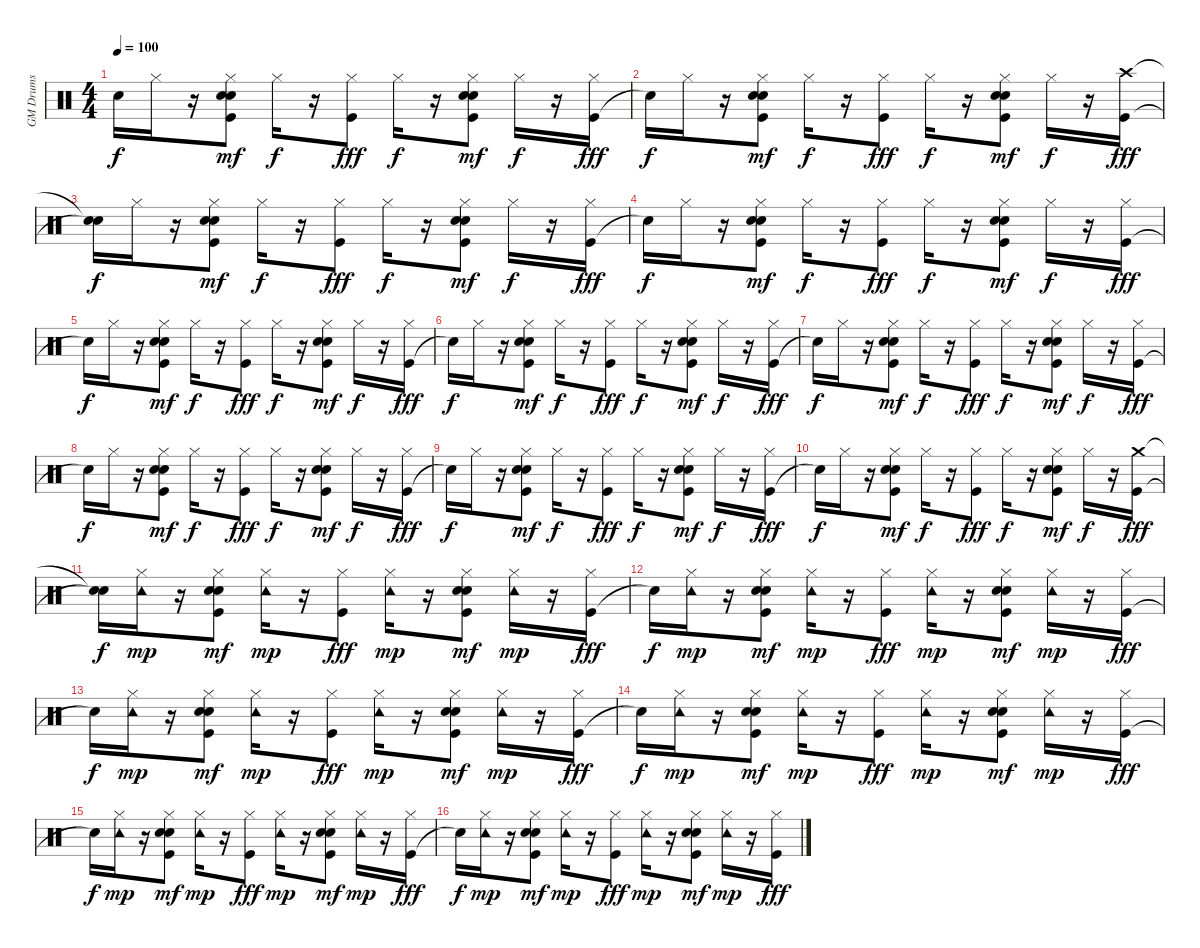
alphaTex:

\track ("GM Drums" "GM Drums") {instrument percussion}
\staff {score}
\articulation defaults
\ts (4 4)
\tempo 100
\clef neutral
\ks c "Snare (hit)"{t}.16{dy f} "Hi-Hat (closed)".16
r.16 ("Kick (hit)" "Snare (hit) 2" "Hand Clap (hit)" "Hi-Hat (closed)").8{dy mf} "Hi-Hat (closed)".16{dy f} r.16 ("Kick (hit)" "Hi-Hat (closed)").8{dy fff} "Hi-Hat (closed)".16{dy f} r.16 ("Kick (hit)" "Snare (hit) 2" "Hand Clap (hit)" "Hi-Hat (closed)").8{dy mf} "Hi-Hat (closed)".16{dy f} r.16 ("Kick (hit)" "Hi-Hat (closed)").16{dy fff} |
"Snare (hit)"{t}.16{dy f} "Hi-Hat (closed)".16 r.16 ("Kick (hit)" "Snare (hit) 2" "Hand Clap (hit)" "Hi-Hat (closed)").8{dy mf} "Hi-Hat (closed)".16{dy f} r.16 ("Kick (hit)" "Hi-Hat (closed)").8{dy fff} "Hi-Hat (closed)".16{dy f} r.16 ("Kick (hit)" "Snare (hit) 2" "Hand Clap (hit)" "Hi-Hat (closed)").8{dy mf} "Hi-Hat (closed)".16{dy f} r.16 ("Kick (hit)" "Crash high (hit)").16{dy fff} |
("Snare (hit)"{t} "Snare (hit)"{t}).16{dy f} "Hi-Hat (closed)".16 r.16 ("Kick (hit)" "Snare (hit) 2" "Hand Clap (hit)" "Hi-Hat (closed)").8{dy mf} "Hi-Hat (closed)".16{dy f} r.16 ("Kick (hit)" "Hi-Hat (closed)").8{dy fff} "Hi-Hat (closed)".16{dy f} r.16 ("Kick (hit)" "Snare (hit) 2" "Hand Clap (hit)" "Hi-Hat (closed)").8{dy mf} "Hi-Hat (closed)".16{dy f} r.16 ("Kick (hit)" "Hi-Hat (closed)").16{dy fff} |
"Snare (hit)"{t}.16{dy f} "Hi-Hat (closed)".16 r.16 ("Kick (hit)" "Snare (hit) 2" "Hand Clap (hit)" "Hi-Hat (closed)").8{dy mf} "Hi-Hat (closed)".16{dy f} r.16 ("Kick (hit)" "Hi-Hat (closed)").8{dy fff} "Hi-Hat (closed)".16{dy f} r.16 ("Kick (hit)" "Snare (hit) 2" "Hand Clap (hit)" "Hi-Hat (closed)").8{dy mf} "Hi-Hat (closed)".16{dy f} r.16 ("Kick (hit)" "Hi-Hat (closed)").16{dy fff} |
"Snare (hit)"{t}.16{dy f} "Hi-Hat (closed)".16 r.16 ("Kick (hit)" "Snare (hit) 2" "Hand Clap (hit)" "Hi-Hat (closed)").8{dy mf} "Hi-Hat (closed)".16{dy f} r.16 ("Kick (hit)" "Hi-Hat (closed)").8{dy fff} "Hi-Hat (closed)".16{dy f} r.16 ("Kick (hit)" "Snare (hit) 2" "Hand Clap (hit)" "Hi-Hat (closed)").8{dy mf} "Hi-Hat (closed)".16{dy f} r.16 ("Kick (hit)" "Hi-Hat (closed)").16{dy fff} |
"Snare (hit)"{t}.16{dy f} "Hi-Hat (closed)".16 r.16 ("Kick (hit)" "Snare (hit) 2" "Hand Clap (hit)" "Hi-Hat (closed)").8{dy mf} "Hi-Hat (closed)".16{dy f} r.16 ("Kick (hit)" "Hi-Hat (closed)").8{dy fff} "Hi-Hat (closed)".16{dy f} r.16 ("Kick (hit)" "Snare (hit) 2" "Hand Clap (hit)" "Hi-Hat (closed)").8{dy mf} "Hi-Hat (closed)".16{dy f} r.16 ("Kick (hit)" "Hi-Hat (closed)").16{dy fff} |
"Snare (hit)"{t}.16{dy f} "Hi-Hat (closed)".16 r.16 ("Kick (hit)" "Snare (hit) 2" "Hand Clap (hit)" "Hi-Hat (closed)").8{dy mf} "Hi-Hat (closed)".16{dy f} r.16 ("Kick (hit)" "Hi-Hat (closed)").8{dy fff} "Hi-Hat (closed)".16{dy f} r.16 ("Kick (hit)" "Snare (hit) 2" "Hand Clap (hit)" "Hi-Hat (closed)").8{dy mf} "Hi-Hat (closed)".16{dy f} r.16 ("Kick (hit)" "Hi-Hat (closed)").16{dy fff} |
"Snare (hit)"{t}.16{dy f} "Hi-Hat (closed)".16 r.16 ("Kick (hit)" "Snare (hit) 2" "Hand Clap (hit)" "Hi-Hat (closed)").8{dy mf} "Hi-Hat (closed)".16{dy f} r.16 ("Kick (hit)" "Hi-Hat (closed)").8{dy fff} "Hi-Hat (closed)".16{dy f} r.16 ("Kick (hit)" "Snare (hit) 2" "Hand Clap (hit)" "Hi-Hat (closed)").8{dy mf} "Hi-Hat (closed)".16{dy f} r.16 ("Kick (hit)" "Hi-Hat (closed)").16{dy fff} |
"Snare (hit)"{t}.16{dy f} "Hi-Hat (closed)".16 r.16 ("Kick (hit)" "Snare (hit) 2" "Hand Clap (hit)" "Hi-Hat (closed)").8{dy mf} "Hi-Hat (closed)".16{dy f} r.16 ("Kick (hit)" "Hi-Hat (closed)").8{dy fff} "Hi-Hat (closed)".16{dy f} r.16 ("Kick (hit)" "Snare (hit) 2" "Hand Clap (hit)" "Hi-Hat (closed)").8{dy mf} "Hi-Hat (closed)".16{dy f} r.16 ("Kick (hit)" "Hi-Hat (closed)").16{dy fff} |
"Snare (hit)"{t}.16{dy f} "Hi-Hat (closed)".16 r.16 ("Kick (hit)" "Snare (hit) 2" "Hand Clap (hit)" "Hi-Hat (closed)").8{dy mf} "Hi-Hat (closed)".16{dy f} r.16 ("Kick (hit)" "Hi-Hat (closed)").8{dy fff} "Hi-Hat (closed)".16{dy f} r.16 ("Kick (hit)" "Snare (hit) 2" "Hand Clap (hit)" "Hi-Hat (closed)").8{dy mf} "Hi-Hat (closed)".16{dy f} r.16 ("Kick (hit)" "Crash medium (hit)").16{dy fff} |
("Snare (hit)"{t} "Snare (hit)"{t}).16{dy f} ("Hi-Hat (closed)" "Tambourine (hit)").16{dy mp} r.16 ("Kick (hit)" "Snare (hit) 2" "Hand Clap (hit)" "Hi-Hat (closed)").8{dy mf} ("Hi-Hat (closed)" "Tambourine (hit)").16{dy mp} r.16 ("Kick (hit)" "Hi-Hat (closed)").8{dy fff} ("Hi-Hat (closed)" "Tambourine (hit)").16{dy mp} r.16 ("Kick (hit)" "Snare (hit) 2" "Hand Clap (hit)" "Hi-Hat (closed)").8{dy mf} ("Hi-Hat (closed)" "Tambourine (hit)").16{dy mp} r.16 ("Kick (hit)" "Hi-Hat (closed)").16{dy fff} |
"Snare (hit)"{t}.16{dy f} ("Hi-Hat (closed)" "Tambourine (hit)").16{dy mp} r.16 ("Kick (hit)" "Snare (hit) 2" "Hand Clap (hit)" "Hi-Hat (closed)").8{dy mf} ("Hi-Hat (closed)" "Tambourine (hit)").16{dy mp} r.16 ("Kick (hit)" "Hi-Hat (closed)").8{dy fff} ("Hi-Hat (closed)" "Tambourine (hit)").16{dy mp} r.16 ("Kick (hit)" "Snare (hit) 2" "Hand Clap (hit)" "Hi-Hat (closed)").8{dy mf} ("Hi-Hat (closed)" "Tambourine (hit)").16{dy mp} r.16 ("Kick (hit)" "Hi-Hat (closed)").16{dy fff} |
"Snare (hit)"{t}.16{dy f} ("Hi-Hat (closed)" "Tambourine (hit)").16{dy mp} r.16 ("Kick (hit)" "Snare (hit) 2" "Hand Clap (hit)" "Hi-Hat (closed)").8{dy mf} ("Hi-Hat (closed)" "Tambourine (hit)").16{dy mp} r.16 ("Kick (hit)" "Hi-Hat (closed)").8{dy fff} ("Hi-Hat (closed)" "Tambourine (hit)").16{dy mp} r.16 ("Kick (hit)" "Snare (hit) 2" "Hand Clap (hit)" "Hi-Hat (closed)").8{dy mf} ("Hi-Hat (closed)" "Tambourine (hit)").16{dy mp} r.16 ("Kick (hit)" "Hi-Hat (closed)").16{dy fff} |
"Snare (hit)"{t}.16{dy f} ("Hi-Hat (closed)" "Tambourine (hit)").16{dy mp} r.16 ("Kick (hit)" "Snare (hit) 2" "Hand Clap (hit)" "Hi-Hat (closed)").8{dy mf} ("Hi-Hat (closed)" "Tambourine (hit)").16{dy mp} r.16 ("Kick (hit)" "Hi-Hat (closed)").8{dy fff} ("Hi-Hat (closed)" "Tambourine (hit)").16{dy mp} r.16 ("Kick (hit)" "Snare (hit) 2" "Hand Clap (hit)" "Hi-Hat (closed)").8{dy mf} ("Hi-Hat (closed)" "Tambourine (hit)").16{dy mp} r.16 ("Kick (hit)" "Hi-Hat (closed)").16{dy fff} |
"Snare (hit)"{t}.16{dy f} ("Hi-Hat (closed)" "Tambourine (hit)").16{dy mp} r.16 ("Kick (hit)" "Snare (hit) 2" "Hand Clap (hit)" "Hi-Hat (closed)").8{dy mf} ("Hi-Hat (closed)" "Tambourine (hit)").16{dy mp} r.16 ("Kick (hit)" "Hi-Hat (closed)").8{dy fff} ("Hi-Hat (closed)" "Tambourine (hit)").16{dy mp} r.16 ("Kick (hit)" "Snare (hit) 2" "Hand Clap (hit)" "Hi-Hat (closed)").8{dy mf} ("Hi-Hat (closed)" "Tambourine (hit)").16{dy mp} r.16 ("Kick (hit)" "Hi-Hat (closed)").16{dy fff} |
"Snare (hit)"{t}.16{dy f} ("Hi-Hat (closed)" "Tambourine (hit)").16{dy mp} r.16 ("Kick (hit)" "Snare (hit) 2" "Hand Clap (hit)" "Hi-Hat (closed)").8{dy mf} ("Hi-Hat (closed)" "Tambourine (hit)").16{dy mp} r.16 ("Kick (hit)" "Hi-Hat (closed)").8{dy fff} ("Hi-Hat (closed)" "Tambourine (hit)").16{dy mp} r.16 ("Kick (hit)" "Snare (hit) 2" "Hand Clap (hit)" "Hi-Hat (closed)").8{dy mf} ("Hi-Hat (closed)" "Tambourine (hit)").16{dy mp} r.16 ("Kick (hit)" "Hi-Hat (closed)").16{dy fff}
